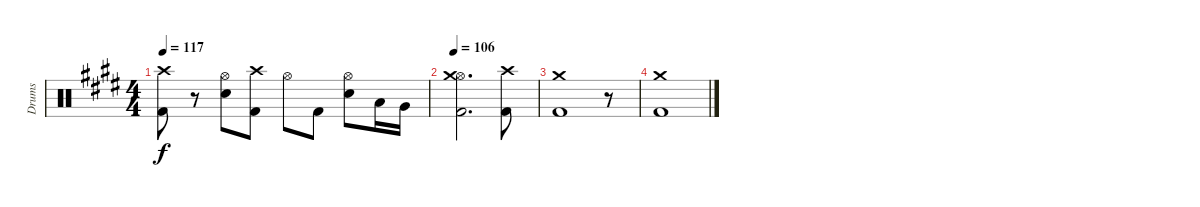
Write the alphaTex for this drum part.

\track ("Drums" "Drums") {instrument percussion}
\staff {score}
\articulation defaults
\ts (4 4)
\tempo 117
\clef neutral
\ks c#minor
("Kick (hit) 2" "Crash high (hit)").8{dy f} r.8 ("Hi-Hat (open)" "Snare (hit) 2").8 ("Crash high (hit)" "Kick (hit) 2").8 "Hi-Hat (open)".8 "Kick (hit) 2".8 ("Hi-Hat (open)" "Snare (hit) 2").8 "Low Tom (hit)".16 "Very Low Tom (hit)".16 |
\tempo 106
("Hi-Hat (open)" "Kick (hit) 2" "Crash medium (hit)").2{d} ("Crash high (hit)" "Kick (hit) 2").8 |
("Kick (hit) 2" "Crash medium (hit)").1 r.8 |
("Kick (hit) 2" "Crash medium (hit)").1
